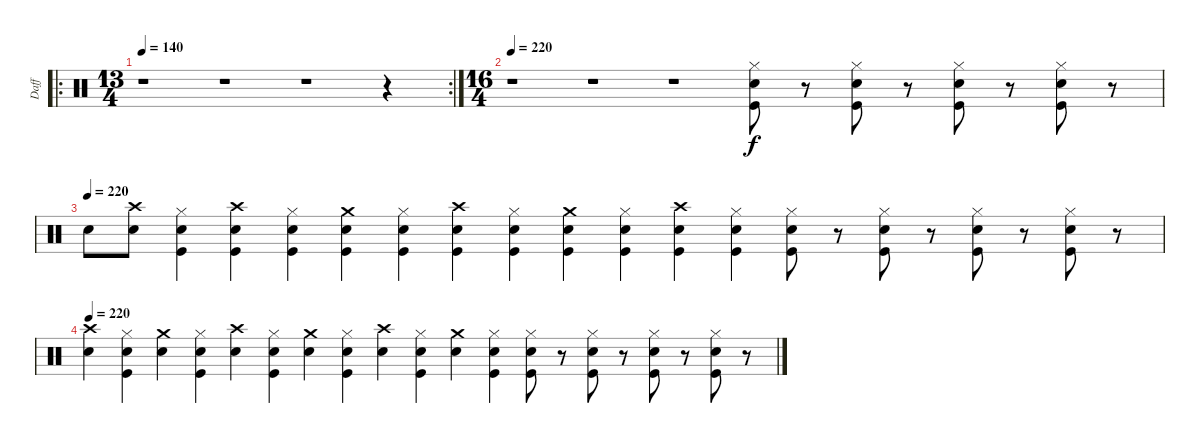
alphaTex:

\track ("Daff" "Daff") {instrument percussion}
\staff {score}
\articulation defaults
\ro
\rc 2
\ts (13 4)
\tempo 140
\clef neutral
\ks c
r.1{dy f} r.1 r.1 r.4 |
\ts (16 4)
\tempo 220
r.1 r.1 r.1 ("Hi-Hat (closed)" "Snare (hit) 2" "Kick (hit)").8 r.8 ("Hi-Hat (closed)" "Snare (hit) 2" "Kick (hit)").8 r.8 ("Hi-Hat (closed)" "Snare (hit) 2" "Kick (hit)").8 r.8 ("Hi-Hat (closed)" "Snare (hit) 2" "Kick (hit)").8 r.8 |
\tempo (220)
"Snare (hit) 2".8 ("Crash high (hit)" "Snare (hit) 2").8 ("Hi-Hat (closed)" "Snare (hit) 2" "Kick (hit)").4 ("Crash high (hit)" "Snare (hit) 2" "Kick (hit)").4 ("Hi-Hat (closed)" "Snare (hit) 2" "Kick (hit)").4 ("Crash medium (hit)" "Snare (hit) 2" "Kick (hit)").4 ("Hi-Hat (closed)" "Snare (hit) 2" "Kick (hit)").4 ("Crash high (hit)" "Snare (hit) 2" "Kick (hit)").4 ("Hi-Hat (closed)" "Snare (hit) 2" "Kick (hit)").4 ("Crash medium (hit)" "Snare (hit) 2" "Kick (hit)").4 ("Hi-Hat (closed)" "Snare (hit) 2" "Kick (hit)").4 ("Crash high (hit)" "Snare (hit) 2" "Kick (hit)").4 ("Hi-Hat (closed)" "Snare (hit) 2" "Kick (hit)").4 ("Hi-Hat (closed)" "Snare (hit) 2" "Kick (hit)").8 r.8 ("Hi-Hat (closed)" "Snare (hit) 2" "Kick (hit)").8 r.8 ("Hi-Hat (closed)" "Snare (hit) 2" "Kick (hit)").8 r.8 ("Hi-Hat (closed)" "Snare (hit) 2" "Kick (hit)").8 r.8 |
\tempo 220
("Crash high (hit)" "Snare (hit) 2").4 ("Hi-Hat (closed)" "Snare (hit) 2" "Kick (hit)").4 ("Crash medium (hit)" "Snare (hit) 2").4 ("Hi-Hat (closed)" "Snare (hit) 2" "Kick (hit)").4 ("Crash high (hit)" "Snare (hit) 2").4 ("Hi-Hat (closed)" "Snare (hit) 2" "Kick (hit)").4 ("Crash medium (hit)" "Snare (hit) 2").4 ("Hi-Hat (closed)" "Snare (hit) 2" "Kick (hit)").4 ("Crash high (hit)" "Snare (hit) 2").4 ("Hi-Hat (closed)" "Snare (hit) 2" "Kick (hit)").4 ("Crash medium (hit)" "Snare (hit) 2").4 ("Hi-Hat (closed)" "Snare (hit) 2" "Kick (hit)").4 ("Hi-Hat (closed)" "Snare (hit) 2" "Kick (hit)").8 r.8 ("Hi-Hat (closed)" "Snare (hit) 2" "Kick (hit)").8 r.8 ("Hi-Hat (closed)" "Snare (hit) 2" "Kick (hit)").8 r.8 ("Hi-Hat (closed)" "Snare (hit) 2" "Kick (hit)").8 r.8
